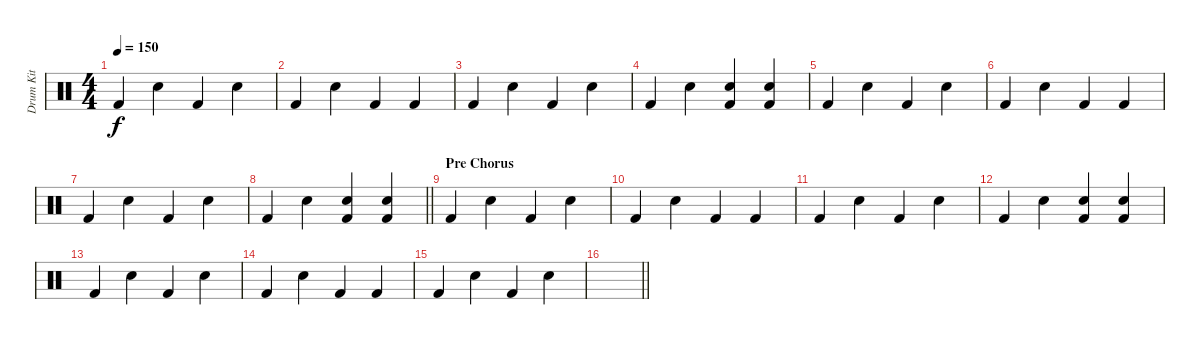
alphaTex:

\track ("Drum Kit" "Drum Kit") {instrument percussion}
\staff {score}
\articulation defaults
\ts (4 4)
\tempo 150
\clef neutral
\ks c "Kick (hit) 2".4{dy f} "Snare (hit) 2".4 "Kick (hit) 2".4 "Snare (hit) 2".4
|
"Kick (hit) 2".4 "Snare (hit) 2".4 "Kick (hit) 2".4 "Kick (hit) 2".4 |
"Kick (hit) 2".4 "Snare (hit) 2".4 "Kick (hit) 2".4 "Snare (hit) 2".4 |
"Kick (hit) 2".4 "Snare (hit) 2".4 ("Snare (hit) 2" "Kick (hit) 2").4 ("Snare (hit) 2" "Kick (hit) 2").4 |
"Kick (hit) 2".4 "Snare (hit) 2".4 "Kick (hit) 2".4 "Snare (hit) 2".4 |
"Kick (hit) 2".4 "Snare (hit) 2".4 "Kick (hit) 2".4 "Kick (hit) 2".4 |
"Kick (hit) 2".4 "Snare (hit) 2".4 "Kick (hit) 2".4 "Snare (hit) 2".4 |
\barLineRight lightlight "Kick (hit) 2".4 "Snare (hit) 2".4
("Snare (hit) 2" "Kick (hit) 2").4 ("Snare (hit) 2" "Kick (hit) 2").4 |
\section ("" "Pre Chorus")
"Kick (hit) 2".4 "Snare (hit) 2".4 "Kick (hit) 2".4 "Snare (hit) 2".4 |
"Kick (hit) 2".4 "Snare (hit) 2".4 "Kick (hit) 2".4 "Kick (hit) 2".4 |
"Kick (hit) 2".4 "Snare (hit) 2".4 "Kick (hit) 2".4 "Snare (hit) 2".4 |
"Kick (hit) 2".4 "Snare (hit) 2".4 ("Snare (hit) 2" "Kick (hit) 2").4 ("Snare (hit) 2" "Kick (hit) 2").4 |
"Kick (hit) 2".4 "Snare (hit) 2".4 "Kick (hit) 2".4 "Snare (hit) 2".4 |
"Kick (hit) 2".4 "Snare (hit) 2".4 "Kick (hit) 2".4 "Kick (hit) 2".4 |
"Kick (hit) 2".4 "Snare (hit) 2".4 "Kick (hit) 2".4 "Snare (hit) 2".4 |
\barLineRight lightlight
